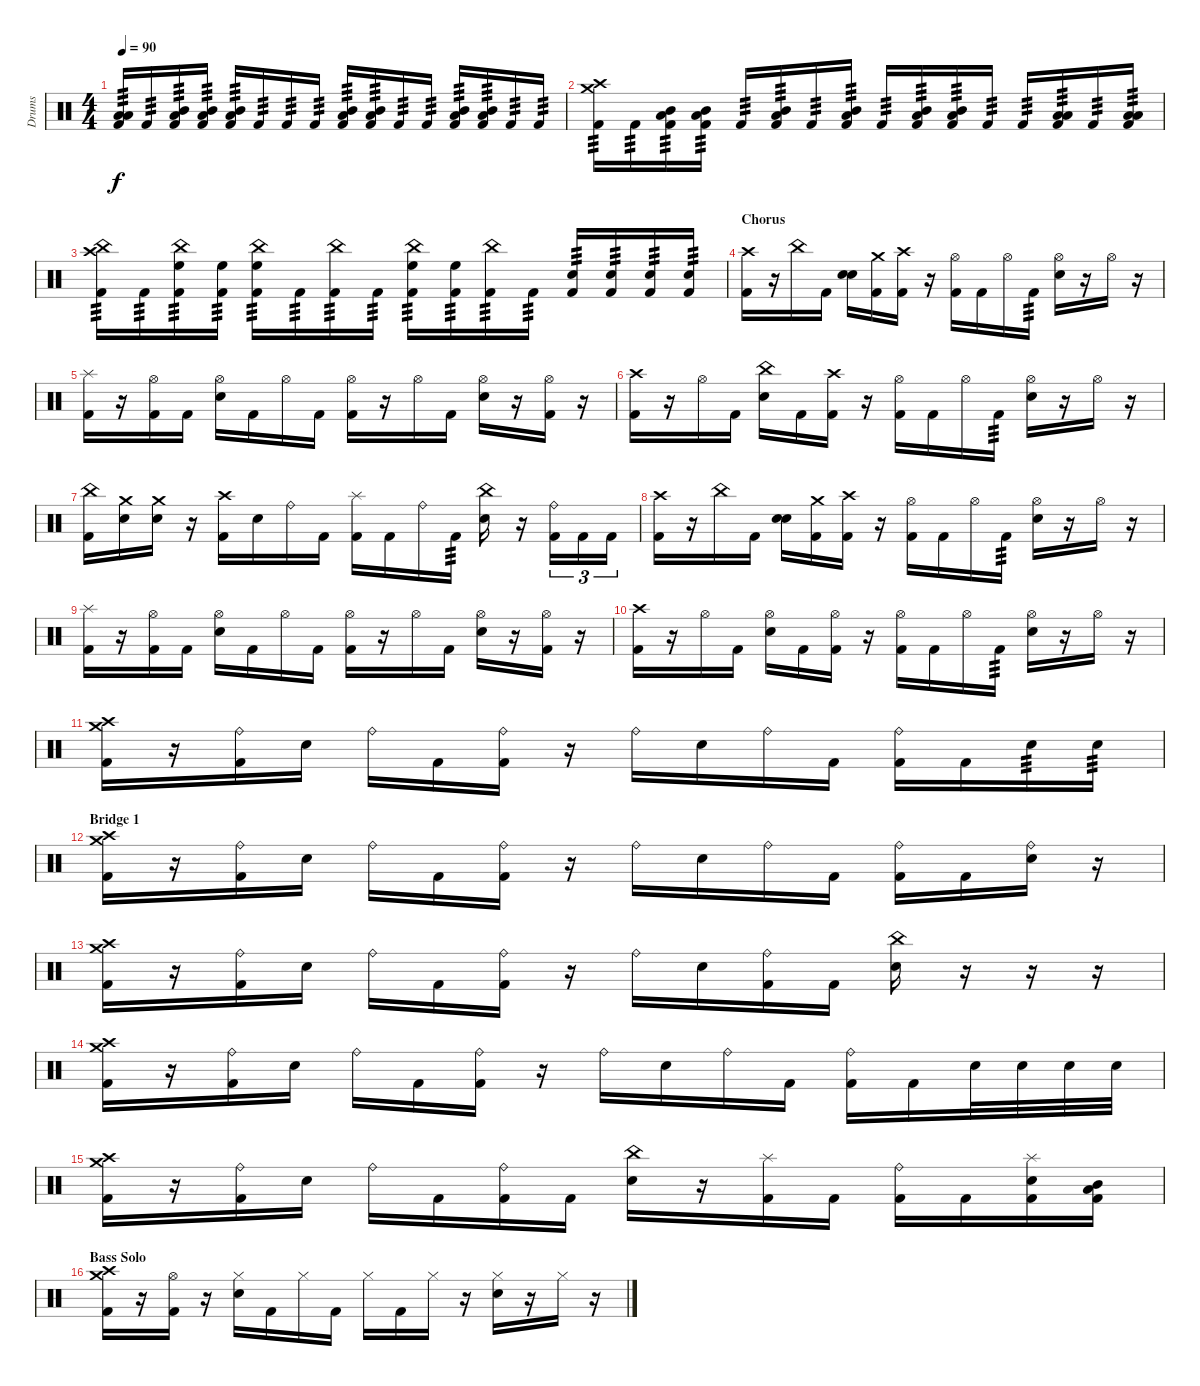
\track ("Drums" "Drums") {instrument percussion}
\staff {score}
\articulation defaults
\ts (4 4)
\tempo 90
\clef neutral
\ks c
("Low Tom (hit)" "Low Floor Tom (hit)" "Kick (hit) 2").16{tp 3 dy f} "Kick (hit) 2".16{tp 3} ("Mid Tom (hit)" "Low Tom (hit)" "Kick (hit) 2").16{tp 3} ("Mid Tom (hit)" "Low Tom (hit)" "Kick (hit) 2").16{tp 3} ("Mid Tom (hit)" "Low Tom (hit)" "Kick (hit) 2").16{tp 3} "Kick (hit) 2".16{tp 3} "Kick (hit) 2".16{tp 3} "Kick (hit) 2".16{tp 3} ("Mid Tom (hit)" "Low Tom (hit)" "Kick (hit) 2").16{tp 3} ("Mid Tom (hit)" "Low Tom (hit)" "Kick (hit) 2").16{tp 3} "Kick (hit) 2".16{tp 3} "Kick (hit) 2".16{tp 3} ("Mid Tom (hit)" "Low Tom (hit)" "Kick (hit) 2").16{tp 3} ("Mid Tom (hit)" "Low Tom (hit)" "Kick (hit) 2").16{tp 3} "Kick (hit) 2".16{tp 3} "Kick (hit) 2".16{tp 3} |
("Crash high (hit)" "Crash medium (hit)" "Kick (hit) 2").16{tp 3} "Kick (hit) 2".16{tp 3} ("Mid Tom (hit)" "Low Tom (hit)" "Kick (hit) 2").16{tp 3} ("Mid Tom (hit)" "Low Tom (hit)" "Kick (hit) 2").16{tp 3} "Kick (hit) 2".16{tp 3} ("Mid Tom (hit)" "Low Tom (hit)" "Kick (hit) 2").16{tp 3} "Kick (hit) 2".16{tp 3} ("Mid Tom (hit)" "Low Tom (hit)" "Kick (hit) 2").16{tp 3} "Kick (hit) 2".16{tp 3} ("Mid Tom (hit)" "Low Tom (hit)" "Kick (hit) 2").16{tp 3} ("Mid Tom (hit)" "Low Tom (hit)" "Kick (hit) 2").16{tp 3} "Kick (hit) 2".16{tp 3} "Kick (hit) 2".16{tp 3} ("Low Tom (hit)" "Low Floor Tom (hit)" "Kick (hit) 2").16{tp 3} "Kick (hit) 2".16{tp 3} ("Low Tom (hit)" "Low Floor Tom (hit)" "Kick (hit) 2").16{tp 3} |
("China (hit)" "Crash high (hit)" "Kick (hit) 2").16{tp 3} "Kick (hit) 2".16{tp 3} ("China (hit)" "High Floor Tom (hit)" "Kick (hit) 2").16{tp 3} ("High Floor Tom (hit)" "Kick (hit) 2").16{tp 3} ("China (hit)" "High Floor Tom (hit)" "Kick (hit) 2").16{tp 3} "Kick (hit) 2".16{tp 3} ("China (hit)" "Kick (hit) 2").16{tp 3} "Kick (hit) 2".16{tp 3} ("China (hit)" "High Floor Tom (hit)" "Kick (hit) 2").16{tp 3} ("High Floor Tom (hit)" "Kick (hit) 2").16{tp 3} ("China (hit)" "Kick (hit) 2").16{tp 3} "Kick (hit) 2".16{tp 3} ("Snare (hit) 2" "Kick (hit) 2").16{tp 3} ("Snare (hit) 2" "Kick (hit) 2").16{tp 3} ("Snare (hit) 2" "Kick (hit) 2").16{tp 3} ("Snare (hit) 2" "Kick (hit) 2").16{tp 3} |
\section ("" "Chorus")
("Crash high (hit)" "Kick (hit) 2").16 r.16 "China (hit)".16 "Kick (hit) 2".16 ("Snare (hit) 2" "Snare (hit) 2").16 ("Crash medium (hit)" "Kick (hit) 2").16 ("Crash high (hit)" "Kick (hit) 2").16 r.16 ("Hi-Hat (open)" "Kick (hit) 2").16 "Kick (hit) 2".16 "Hi-Hat (open)".16 "Kick (hit) 2".16{tp 3} ("Hi-Hat (open)" "Snare (hit) 2").16 r.16 "Hi-Hat (open)".16 r.16 |
("Splash (hit)" "Kick (hit) 2").16 r.16 ("Hi-Hat (open)" "Kick (hit) 2").16 "Kick (hit) 2".16 ("Hi-Hat (open)" "Snare (hit) 2").16 "Kick (hit) 2".16 "Hi-Hat (open)".16 "Kick (hit) 2".16 ("Hi-Hat (open)" "Kick (hit) 2").16 r.16 "Hi-Hat (open)".16 "Kick (hit) 2".16 ("Hi-Hat (open)" "Snare (hit) 2").16 r.16 ("Hi-Hat (open)" "Kick (hit) 2").16 r.16 |
("Crash high (hit)" "Kick (hit) 2").16 r.16 "Hi-Hat (open)".16 "Kick (hit) 2".16 ("China (hit)" "Snare (hit) 2").16 "Kick (hit) 2".16 ("Crash high (hit)" "Kick (hit) 2").16 r.16 ("Hi-Hat (open)" "Kick (hit) 2").16 "Kick (hit) 2".16 "Hi-Hat (open)".16 "Kick (hit) 2".16{tp 3} ("Hi-Hat (open)" "Snare (hit) 2").16 r.16 "Hi-Hat (open)".16 r.16 |
("China (hit)" "Kick (hit) 2").16 ("Crash medium (hit)" "Snare (hit) 2").16 ("Crash medium (hit)" "Snare (hit) 2").16 r.16 ("Crash high (hit)" "Kick (hit) 2").16 "Snare (hit) 2".16 "Ride (bell)".16 "Kick (hit) 2".16 ("Splash (hit)" "Kick (hit) 2").16 "Kick (hit) 2".16 "Ride (bell)".16 "Kick (hit) 2".16{tp 3} ("China (hit)" "Snare (hit) 2").16 r.16 ("Ride (bell)" "Kick (hit) 2").16{tu (3 2)} "Kick (hit) 2".16{tu (3 2)} "Kick (hit) 2".16{tu (3 2)} |
("Crash high (hit)" "Kick (hit) 2").16 r.16 "China (hit)".16 "Kick (hit) 2".16 ("Snare (hit) 2" "Snare (hit) 2").16 ("Crash medium (hit)" "Kick (hit) 2").16 ("Crash high (hit)" "Kick (hit) 2").16 r.16 ("Hi-Hat (open)" "Kick (hit) 2").16 "Kick (hit) 2".16 "Hi-Hat (open)".16 "Kick (hit) 2".16{tp 3} ("Hi-Hat (open)" "Snare (hit) 2").16 r.16 "Hi-Hat (open)".16 r.16 |
("Splash (hit)" "Kick (hit) 2").16 r.16 ("Hi-Hat (open)" "Kick (hit) 2").16 "Kick (hit) 2".16 ("Hi-Hat (open)" "Snare (hit) 2").16 "Kick (hit) 2".16 "Hi-Hat (open)".16 "Kick (hit) 2".16 ("Hi-Hat (open)" "Kick (hit) 2").16 r.16 "Hi-Hat (open)".16 "Kick (hit) 2".16 ("Hi-Hat (open)" "Snare (hit) 2").16 r.16 ("Hi-Hat (open)" "Kick (hit) 2").16 r.16 |
("Crash high (hit)" "Kick (hit) 2").16 r.16 "Hi-Hat (open)".16 "Kick (hit) 2".16 ("Hi-Hat (open)" "Snare (hit) 2").16 "Kick (hit) 2".16 ("Hi-Hat (open)" "Kick (hit) 2").16 r.16 ("Hi-Hat (open)" "Kick (hit) 2").16 "Kick (hit) 2".16 "Hi-Hat (open)".16 "Kick (hit) 2".16{tp 3} ("Hi-Hat (open)" "Snare (hit) 2").16 r.16 "Hi-Hat (open)".16 r.16 |
("Crash high (hit)" "Crash medium (hit)" "Kick (hit) 2").16 r.16 ("Ride (bell)" "Kick (hit) 2").16 "Snare (hit) 2".16 "Ride (bell)".16 "Kick (hit) 2".16 ("Ride (bell)" "Kick (hit) 2").16 r.16 "Ride (bell)".16 "Snare (hit) 2".16 "Ride (bell)".16 "Kick (hit) 2".16 ("Ride (bell)" "Kick (hit) 2").16 "Kick (hit) 2".16 "Snare (hit) 2".16{tp 3} "Snare (hit) 2".16{tp 3} |
\section ("" "Bridge 1")
("Crash high (hit)" "Crash medium (hit)" "Kick (hit) 2").16 r.16 ("Ride (bell)" "Kick (hit) 2").16 "Snare (hit) 2".16 "Ride (bell)".16 "Kick (hit) 2".16 ("Ride (bell)" "Kick (hit) 2").16 r.16 "Ride (bell)".16 "Snare (hit) 2".16 "Ride (bell)".16 "Kick (hit) 2".16 ("Ride (bell)" "Kick (hit) 2").16 "Kick (hit) 2".16 ("Ride (bell)" "Snare (hit) 2").16 r.16 |
("Crash high (hit)" "Crash medium (hit)" "Kick (hit) 2").16 r.16 ("Ride (bell)" "Kick (hit) 2").16 "Snare (hit) 2".16 "Ride (bell)".16 "Kick (hit) 2".16 ("Ride (bell)" "Kick (hit) 2").16 r.16 "Ride (bell)".16 "Snare (hit) 2".16 ("Ride (bell)" "Kick (hit) 2").16 "Kick (hit) 2".16 ("China (hit)" "Snare (hit) 2").16 r.16 r.16 r.16 |
("Crash high (hit)" "Crash medium (hit)" "Kick (hit) 2").16 r.16 ("Ride (bell)" "Kick (hit) 2").16 "Snare (hit) 2".16 "Ride (bell)".16 "Kick (hit) 2".16 ("Ride (bell)" "Kick (hit) 2").16 r.16 "Ride (bell)".16 "Snare (hit) 2".16 "Ride (bell)".16 "Kick (hit) 2".16 ("Ride (bell)" "Kick (hit) 2").16 "Kick (hit) 2".16 "Snare (hit) 2".32 "Snare (hit) 2".32 "Snare (hit) 2".32 "Snare (hit) 2".32 |
("Crash high (hit)" "Crash medium (hit)" "Kick (hit) 2").16 r.16 ("Ride (bell)" "Kick (hit) 2").16 "Snare (hit) 2".16 "Ride (bell)".16 "Kick (hit) 2".16 ("Ride (bell)" "Kick (hit) 2").16 "Kick (hit) 2".16 ("China (hit)" "Snare (hit) 2").16 r.16 ("Splash (hit)" "Kick (hit) 2").16 "Kick (hit) 2".16 ("Ride (bell)" "Kick (hit) 2").16 "Kick (hit) 2".16 ("Splash (hit)" "Snare (hit) 2" "Kick (hit) 2").16 ("Mid Tom (hit)" "Low Tom (hit)" "Kick (hit) 2").16 |
\section ("" "Bass Solo")
("Crash high (hit)" "Crash medium (hit)" "Kick (hit) 2").16 r.16 ("Hi-Hat (open)" "Kick (hit) 2").16 r.16 ("Hi-Hat (closed)" "Snare (hit) 2").16 "Kick (hit) 2".16 "Hi-Hat (closed)".16 "Kick (hit) 2".16 "Hi-Hat (closed)".16 "Kick (hit) 2".16 "Hi-Hat (closed)".16 r.16 ("Hi-Hat (closed)" "Snare (hit) 2").16 r.16 "Hi-Hat (closed)".16 r.16
